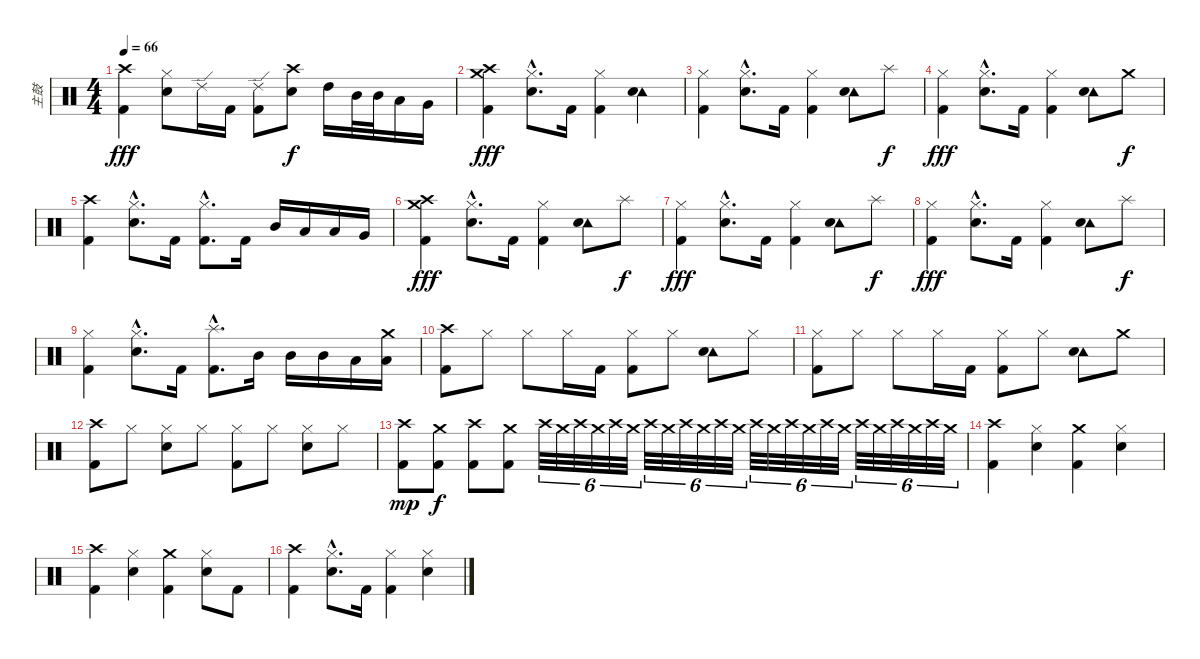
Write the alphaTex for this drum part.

\track ("主鼓" "主鼓") {instrument percussion}
\staff {score}
\articulation defaults
\ts (4 4)
\tempo 66
\clef neutral
\ks c
("Crash high (hit)" "Kick (hit) 2").4{dy fff} ("Hi-Hat (closed)" "Snare (hit) 2").8 "Ride (edge) 2".16 "Kick (hit) 2".16 ("Ride (edge) 2" "Kick (hit) 2").8 ("Crash high (hit)" "Snare (hit) 2").8{dy f} "High Tom (hit)".16 "Mid Tom (hit)".32 "Mid Tom (hit)".32 "Low Tom (hit)".16 "Very Low Tom (hit)".16 |
("Crash high (hit)" "Crash medium (hit)" "Kick (hit) 2").4{dy fff} ("Hi-Hat (closed)"{hac} "Snare (hit) 2"{hac}).8{d} "Kick (hit) 2".16 ("Hi-Hat (closed)" "Kick (hit) 2").4 ("Tambourine (hit)" "Snare (hit) 2").4 |
("Hi-Hat (closed)" "Kick (hit) 2").4 ("Hi-Hat (closed)"{hac} "Snare (hit) 2"{hac}).8{d} "Kick (hit) 2".16 ("Hi-Hat (closed)" "Kick (hit) 2").4 ("Tambourine (hit)" "Snare (hit) 2").8 "Splash (hit)".8{dy f} |
("Hi-Hat (closed)" "Kick (hit) 2").4{dy fff} ("Hi-Hat (closed)"{hac} "Snare (hit) 2"{hac}).8{d} "Kick (hit) 2".16 ("Hi-Hat (closed)" "Kick (hit) 2").4 ("Tambourine (hit)" "Snare (hit) 2").8 "Crash medium (hit)".8{dy f} |
("Crash high (hit)" "Kick (hit) 2").4 ("Hi-Hat (closed)"{hac} "Snare (hit) 2"{hac}).8{d} "Kick (hit) 2".16 ("Hi-Hat (closed)"{hac} "Kick (hit) 2"{hac}).8{d} "Kick (hit) 2".16 "Mid Tom (hit)".16 "Low Tom (hit)".16 "Low Tom (hit)".16 "Very Low Tom (hit)".16 |
("Crash high (hit)" "Crash medium (hit)" "Kick (hit) 2").4{dy fff} ("Hi-Hat (closed)"{hac} "Snare (hit) 2").8{d} "Kick (hit) 2".16 ("Hi-Hat (closed)" "Kick (hit) 2").4 ("Tambourine (hit)" "Snare (hit) 2").8 "Splash (hit)".8{dy f} |
("Hi-Hat (closed)" "Kick (hit) 2").4{dy fff} ("Hi-Hat (closed)"{hac} "Snare (hit) 2"{hac}).8{d} "Kick (hit) 2".16 ("Hi-Hat (closed)" "Kick (hit) 2").4 ("Tambourine (hit)" "Snare (hit) 2").8 "Splash (hit)".8{dy f} |
("Hi-Hat (closed)" "Kick (hit) 2").4{dy fff} ("Hi-Hat (closed)"{hac} "Snare (hit) 2"{hac}).8{d} "Kick (hit) 2".16 ("Hi-Hat (closed)" "Kick (hit) 2").4 ("Tambourine (hit)" "Snare (hit) 2").8 "Splash (hit)".8{dy f} |
("Hi-Hat (closed)" "Kick (hit) 2").4 ("Hi-Hat (closed)"{hac} "Snare (hit) 2"{hac}).8{d} "Kick (hit) 2".16 ("Splash (hit)"{hac} "Kick (hit) 2"{hac}).8{d} "Mid Tom (hit)".16 "Mid Tom (hit)".16 "Mid Tom (hit)".16 "Low Tom (hit)".16 ("Crash medium (hit)" "Low Tom (hit)").16 |
("Crash high (hit)" "Kick (hit) 2").8 "Hi-Hat (closed)".8 "Hi-Hat (closed)".8 "Hi-Hat (closed)".16 "Kick (hit) 2".16 ("Hi-Hat (closed)" "Kick (hit) 2").8 "Hi-Hat (closed)".8 ("Tambourine (hit)" "Snare (hit) 2").8 "Hi-Hat (closed)".8 |
("Hi-Hat (closed)" "Kick (hit) 2").8 "Hi-Hat (closed)".8 "Hi-Hat (closed)".8 "Hi-Hat (closed)".16 "Kick (hit) 2".16 ("Hi-Hat (closed)" "Kick (hit) 2").8 "Hi-Hat (closed)".8 ("Tambourine (hit)" "Snare (hit) 2").8 "Crash medium (hit)".8 |
("Crash high (hit)" "Kick (hit) 2").8 "Hi-Hat (closed)".8 ("Hi-Hat (closed)" "Snare (hit) 2").8 "Hi-Hat (closed)".8 ("Hi-Hat (closed)" "Kick (hit) 2").8 "Hi-Hat (closed)".8 ("Hi-Hat (closed)" "Snare (hit) 2").8 "Hi-Hat (closed)".8 |
("Crash high (hit)" "Kick (hit) 2").8{dy mp} ("Crash medium (hit)" "Kick (hit) 2").8{dy f} ("Crash high (hit)" "Kick (hit) 2").8 ("Crash medium (hit)" "Kick (hit) 2").8 "Crash high (hit)".32{tu (6 4) volume 5 balance 12} "Crash medium (hit)".32{tu (6 4)} "Crash high (hit)".32{tu (6 4)} "Crash medium (hit)".32{tu (6 4)} "Crash high (hit)".32{tu (6 4)} "Crash medium (hit)".32{tu (6 4)} "Crash high (hit)".32{tu (6 4) volume 8} "Crash medium (hit)".32{tu (6 4)} "Crash high (hit)".32{tu (6 4)} "Crash medium (hit)".32{tu (6 4)} "Crash high (hit)".32{tu (6 4)} "Crash medium (hit)".32{tu (6 4)} "Crash high (hit)".32{tu (6 4)} "Crash medium (hit)".32{tu (6 4)} "Crash high (hit)".32{tu (6 4)} "Crash medium (hit)".32{tu (6 4)} "Crash high (hit)".32{tu (6 4)} "Crash medium (hit)".32{tu (6 4)} "Crash high (hit)".32{tu (6 4)} "Crash medium (hit)".32{tu (6 4)} "Crash high (hit)".32{tu (6 4)} "Crash medium (hit)".32{tu (6 4)} "Crash high (hit)".32{tu (6 4)} "Crash medium (hit)".32{tu (6 4)} |
("Crash high (hit)" "Kick (hit) 2").4{volume 16} ("Hi-Hat (closed)" "Snare (hit) 2").4 ("Crash medium (hit)" "Kick (hit) 2").4 ("Hi-Hat (closed)" "Snare (hit) 2").4 |
("Crash high (hit)" "Kick (hit) 2").4 ("Hi-Hat (closed)" "Snare (hit) 2").4 ("Crash medium (hit)" "Kick (hit) 2").4 ("Hi-Hat (closed)" "Snare (hit) 2").8 "Kick (hit) 2".8 |
("Crash high (hit)" "Kick (hit) 2").4 ("Hi-Hat (closed)"{hac} "Snare (hit) 2"{hac}).8{d} "Kick (hit) 2".16 ("Hi-Hat (closed)" "Kick (hit) 2").4 ("Hi-Hat (closed)" "Snare (hit) 2").4
